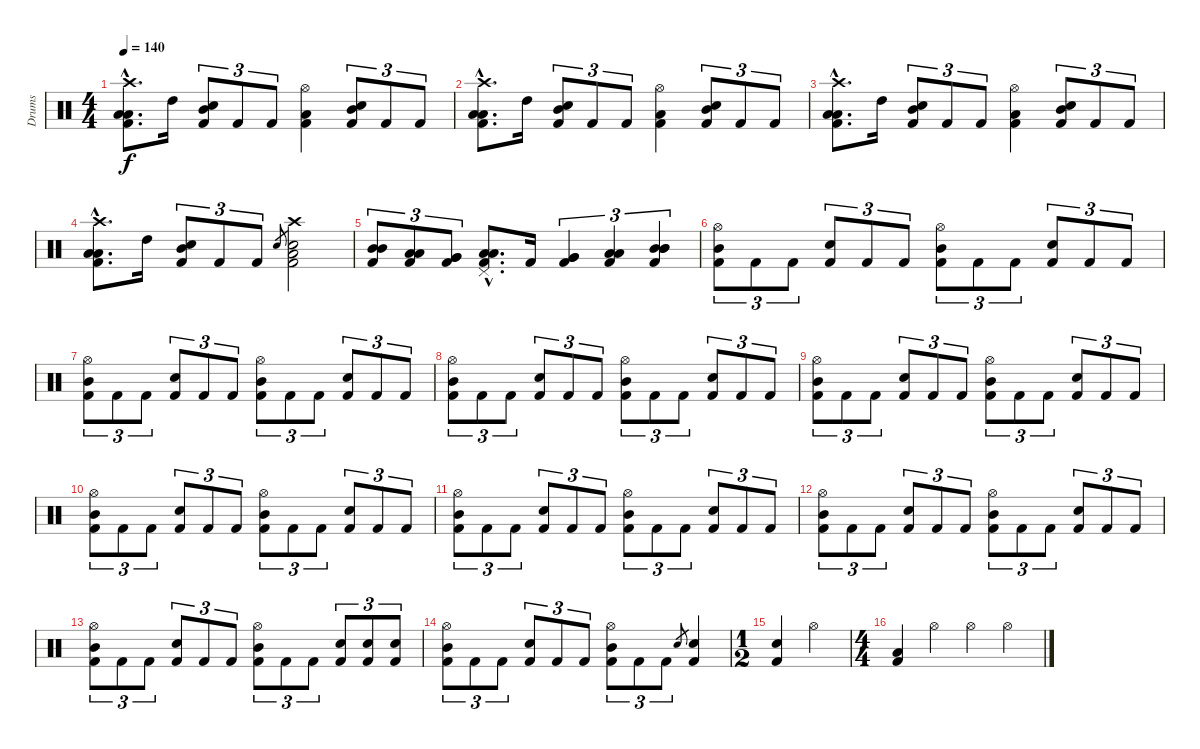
\track ("Drums" "Drums") {instrument percussion}
\staff {score}
\articulation defaults
\ts (4 4)
\tempo 140
\clef neutral
\ks c
("Crash high (hit)"{hac} "Low Tom (hit)"{hac} "Low Tom (hit)"{hac} "Kick (hit) 2"{hac}).8{d dy f} "High Tom (hit)".16 ("Mid Tom (hit)" "Snare (hit) 2" "Kick (hit) 2").8{tu (3 2)} "Kick (hit) 2".8{tu (3 2)} "Kick (hit) 2".8{tu (3 2)} ("Hi-Hat (open)" "Low Tom (hit)" "Kick (hit) 2").4 ("Mid Tom (hit)" "Snare (hit) 2" "Kick (hit) 2").8{tu (3 2)} "Kick (hit) 2".8{tu (3 2)} "Kick (hit) 2".8{tu (3 2)} |
("Crash high (hit)"{hac} "Low Tom (hit)"{hac} "Low Tom (hit)"{hac} "Kick (hit) 2"{hac}).8{d} "High Tom (hit)".16 ("Mid Tom (hit)" "Snare (hit) 2" "Kick (hit) 2").8{tu (3 2)} "Kick (hit) 2".8{tu (3 2)} "Kick (hit) 2".8{tu (3 2)} ("Hi-Hat (open)" "Low Tom (hit)" "Kick (hit) 2").4 ("Mid Tom (hit)" "Snare (hit) 2" "Kick (hit) 2").8{tu (3 2)} "Kick (hit) 2".8{tu (3 2)} "Kick (hit) 2".8{tu (3 2)} |
("Crash high (hit)"{hac} "Low Tom (hit)"{hac} "Low Tom (hit)"{hac} "Kick (hit) 2"{hac}).8{d} "High Tom (hit)".16 ("Mid Tom (hit)" "Snare (hit) 2" "Kick (hit) 2").8{tu (3 2)} "Kick (hit) 2".8{tu (3 2)} "Kick (hit) 2".8{tu (3 2)} ("Hi-Hat (open)" "Low Tom (hit)" "Kick (hit) 2").4 ("Mid Tom (hit)" "Snare (hit) 2" "Kick (hit) 2").8{tu (3 2)} "Kick (hit) 2".8{tu (3 2)} "Kick (hit) 2".8{tu (3 2)} |
("Crash high (hit)"{hac} "Low Tom (hit)"{hac} "Low Tom (hit)"{hac} "Kick (hit) 2"{hac}).8{d} "High Tom (hit)".16 ("Mid Tom (hit)" "Snare (hit) 2" "Kick (hit) 2").8{tu (3 2)} "Kick (hit) 2".8{tu (3 2)} "Kick (hit) 2".8{tu (3 2)} "Electric Snare (hit)".8{gr} ("Crash high (hit)" "Electric Snare (hit)" "Low Tom (hit)" "Kick (hit) 2").2 |
("Mid Tom (hit)" "Mid Tom (hit)" "Kick (hit) 2").8{tu (3 2)} ("Low Tom (hit)" "Low Tom (hit)" "Kick (hit) 2").8{tu (3 2)} ("Very Low Tom (hit)" "Very Low Tom (hit)" "Kick (hit) 2").8{tu (3 2)} ("Pedal Hi-Hat (hit)"{hac} "Low Floor Tom (hit)"{hac} "Low Floor Tom (hit)"{hac} "Kick (hit) 2"{hac}).8{d} "Kick (hit) 2".16 ("Very Low Tom (hit)" "Very Low Tom (hit)" "Kick (hit) 2").4{tu (3 2)} ("Low Tom (hit)" "Low Tom (hit)" "Kick (hit) 2").4{tu (3 2)} ("Mid Tom (hit)" "Mid Tom (hit)" "Mid Tom (hit)" "Kick (hit) 2").4{tu (3 2)} |
("Hi-Hat (open)" "Mid Tom (hit)" "Kick (hit) 2").8{tu (3 2)} "Kick (hit) 2".8{tu (3 2)} "Kick (hit) 2".8{tu (3 2)} ("Electric Snare (hit)" "Kick (hit) 2").8{tu (3 2)} "Kick (hit) 2".8{tu (3 2)} "Kick (hit) 2".8{tu (3 2)} ("Hi-Hat (open)" "Mid Tom (hit)" "Kick (hit) 2").8{tu (3 2)} "Kick (hit) 2".8{tu (3 2)} "Kick (hit) 2".8{tu (3 2)} ("Electric Snare (hit)" "Kick (hit) 2").8{tu (3 2)} "Kick (hit) 2".8{tu (3 2)} "Kick (hit) 2".8{tu (3 2)} |
("Hi-Hat (open)" "Mid Tom (hit)" "Kick (hit) 2").8{tu (3 2)} "Kick (hit) 2".8{tu (3 2)} "Kick (hit) 2".8{tu (3 2)} ("Electric Snare (hit)" "Kick (hit) 2").8{tu (3 2)} "Kick (hit) 2".8{tu (3 2)} "Kick (hit) 2".8{tu (3 2)} ("Hi-Hat (open)" "Mid Tom (hit)" "Kick (hit) 2").8{tu (3 2)} "Kick (hit) 2".8{tu (3 2)} "Kick (hit) 2".8{tu (3 2)} ("Electric Snare (hit)" "Kick (hit) 2").8{tu (3 2)} "Kick (hit) 2".8{tu (3 2)} "Kick (hit) 2".8{tu (3 2)} |
("Hi-Hat (open)" "Mid Tom (hit)" "Kick (hit) 2").8{tu (3 2)} "Kick (hit) 2".8{tu (3 2)} "Kick (hit) 2".8{tu (3 2)} ("Electric Snare (hit)" "Kick (hit) 2").8{tu (3 2)} "Kick (hit) 2".8{tu (3 2)} "Kick (hit) 2".8{tu (3 2)} ("Hi-Hat (open)" "Mid Tom (hit)" "Kick (hit) 2").8{tu (3 2)} "Kick (hit) 2".8{tu (3 2)} "Kick (hit) 2".8{tu (3 2)} ("Electric Snare (hit)" "Kick (hit) 2").8{tu (3 2)} "Kick (hit) 2".8{tu (3 2)} "Kick (hit) 2".8{tu (3 2)} |
("Hi-Hat (open)" "Mid Tom (hit)" "Kick (hit) 2").8{tu (3 2)} "Kick (hit) 2".8{tu (3 2)} "Kick (hit) 2".8{tu (3 2)} ("Electric Snare (hit)" "Kick (hit) 2").8{tu (3 2)} "Kick (hit) 2".8{tu (3 2)} "Kick (hit) 2".8{tu (3 2)} ("Hi-Hat (open)" "Mid Tom (hit)" "Kick (hit) 2").8{tu (3 2)} "Kick (hit) 2".8{tu (3 2)} "Kick (hit) 2".8{tu (3 2)} ("Electric Snare (hit)" "Kick (hit) 2").8{tu (3 2)} "Kick (hit) 2".8{tu (3 2)} "Kick (hit) 2".8{tu (3 2)} |
("Hi-Hat (open)" "Mid Tom (hit)" "Kick (hit) 2").8{tu (3 2)} "Kick (hit) 2".8{tu (3 2)} "Kick (hit) 2".8{tu (3 2)} ("Electric Snare (hit)" "Kick (hit) 2").8{tu (3 2)} "Kick (hit) 2".8{tu (3 2)} "Kick (hit) 2".8{tu (3 2)} ("Hi-Hat (open)" "Mid Tom (hit)" "Kick (hit) 2").8{tu (3 2)} "Kick (hit) 2".8{tu (3 2)} "Kick (hit) 2".8{tu (3 2)} ("Electric Snare (hit)" "Kick (hit) 2").8{tu (3 2)} "Kick (hit) 2".8{tu (3 2)} "Kick (hit) 2".8{tu (3 2)} |
("Hi-Hat (open)" "Mid Tom (hit)" "Kick (hit) 2").8{tu (3 2)} "Kick (hit) 2".8{tu (3 2)} "Kick (hit) 2".8{tu (3 2)} ("Electric Snare (hit)" "Kick (hit) 2").8{tu (3 2)} "Kick (hit) 2".8{tu (3 2)} "Kick (hit) 2".8{tu (3 2)} ("Hi-Hat (open)" "Mid Tom (hit)" "Kick (hit) 2").8{tu (3 2)} "Kick (hit) 2".8{tu (3 2)} "Kick (hit) 2".8{tu (3 2)} ("Electric Snare (hit)" "Kick (hit) 2").8{tu (3 2)} "Kick (hit) 2".8{tu (3 2)} "Kick (hit) 2".8{tu (3 2)} |
("Hi-Hat (open)" "Mid Tom (hit)" "Kick (hit) 2").8{tu (3 2)} "Kick (hit) 2".8{tu (3 2)} "Kick (hit) 2".8{tu (3 2)} ("Electric Snare (hit)" "Kick (hit) 2").8{tu (3 2)} "Kick (hit) 2".8{tu (3 2)} "Kick (hit) 2".8{tu (3 2)} ("Hi-Hat (open)" "Mid Tom (hit)" "Kick (hit) 2").8{tu (3 2)} "Kick (hit) 2".8{tu (3 2)} "Kick (hit) 2".8{tu (3 2)} ("Electric Snare (hit)" "Kick (hit) 2").8{tu (3 2)} "Kick (hit) 2".8{tu (3 2)} "Kick (hit) 2".8{tu (3 2)} |
("Hi-Hat (open)" "Mid Tom (hit)" "Kick (hit) 2").8{tu (3 2)} "Kick (hit) 2".8{tu (3 2)} "Kick (hit) 2".8{tu (3 2)} ("Electric Snare (hit)" "Kick (hit) 2").8{tu (3 2)} "Kick (hit) 2".8{tu (3 2)} "Kick (hit) 2".8{tu (3 2)} ("Hi-Hat (open)" "Mid Tom (hit)" "Kick (hit) 2").8{tu (3 2)} "Kick (hit) 2".8{tu (3 2)} "Kick (hit) 2".8{tu (3 2)} ("Snare (hit) 2" "Kick (hit) 2").8{tu (3 2)} ("Snare (hit) 2" "Kick (hit) 2").8{tu (3 2)} ("Snare (hit) 2" "Kick (hit) 2").8{tu (3 2)} |
("Hi-Hat (open)" "Mid Tom (hit)" "Kick (hit) 2").8{tu (3 2)} "Kick (hit) 2".8{tu (3 2)} "Kick (hit) 2".8{tu (3 2)} ("Electric Snare (hit)" "Kick (hit) 2").8{tu (3 2)} "Kick (hit) 2".8{tu (3 2)} "Kick (hit) 2".8{tu (3 2)} ("Hi-Hat (open)" "Mid Tom (hit)" "Kick (hit) 2").8{tu (3 2)} "Kick (hit) 2".8{tu (3 2)} "Kick (hit) 2".8{tu (3 2)} "Snare (hit) 2".8{gr} ("Electric Snare (hit)" "Kick (hit) 2").4 |
\ts (1 2)
("Snare (hit) 2" "Kick (hit) 2").4 "Hi-Hat (open)".4 |
\ts (4 4)
("Low Floor Tom (hit)" "Kick (hit) 2").4 "Hi-Hat (open)".4 "Hi-Hat (open)".4 "Hi-Hat (open)".4
